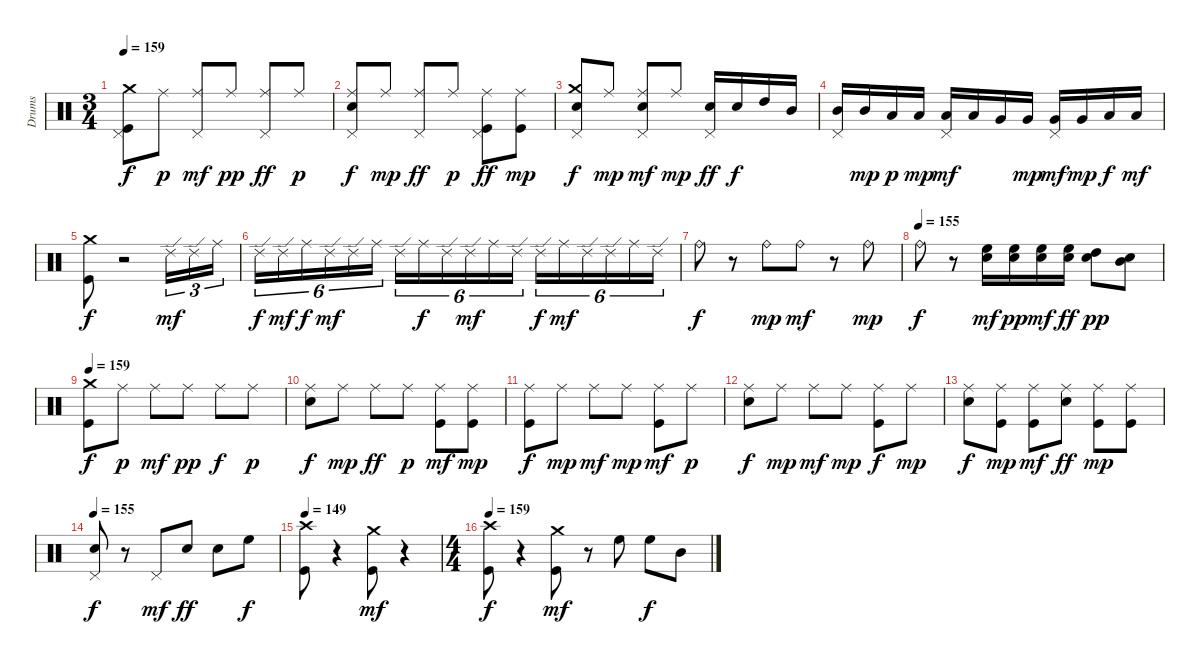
\track ("Drums" "Drums") {instrument percussion}
\staff {score}
\articulation defaults
\ts (3 4)
\tempo 159
\clef neutral
\ks c
("Kick (hit)" "Pedal Hi-Hat (hit)" "Crash medium (hit)").8{dy f} "Ride (middle)".8{dy p} ("Pedal Hi-Hat (hit)" "Ride (middle)").8{dy mf} "Ride (middle)".8{dy pp} ("Pedal Hi-Hat (hit)" "Ride (middle)").8{dy ff} "Ride (middle)".8{dy p} |
("Electric Snare (hit)" "Pedal Hi-Hat (hit)" "Ride (middle)").8{dy f} "Ride (middle)".8{dy mp} ("Pedal Hi-Hat (hit)" "Ride (middle)").8{dy ff} "Ride (middle)".8{dy p} ("Kick (hit)" "Pedal Hi-Hat (hit)" "Ride (middle)").8{dy ff} ("Kick (hit)" "Ride (middle)").8{dy mp} |
("Electric Snare (hit)" "Pedal Hi-Hat (hit)" "Crash medium (hit)").8{dy f} "Ride (middle)".8{dy mp} ("Electric Snare (hit)" "Pedal Hi-Hat (hit)" "Ride (middle)").8{dy mf} "Ride (middle)".8{dy mp} ("Electric Snare (hit)" "Pedal Hi-Hat (hit)").16{dy ff} "Electric Snare (hit)".16{dy f} "High Tom (hit)".16 "Mid Tom (hit)".16 |
("Mid Tom (hit)" "Pedal Hi-Hat (hit)").16 "Mid Tom (hit)".16{dy mp} "Low Tom (hit)".16{dy p} "Low Tom (hit)".16{dy mp} ("Low Tom (hit)" "Pedal Hi-Hat (hit)").16{dy mf} "Low Tom (hit)".16 "Very Low Tom (hit)".16 "Very Low Tom (hit)".16{dy mp} ("Very Low Tom (hit)" "Pedal Hi-Hat (hit)").16{dy mf} "Very Low Tom (hit)".16{dy mp} "Low Floor Tom (hit)".16{dy f} "Low Floor Tom (hit)".16{dy mf} |
("Kick (hit)" "Crash medium (hit)").8{dy f} r.2 "Ride (edge) 2".16{tu (3 2) dy mf} "Ride (edge) 2".16{tu (3 2)} "Ride (middle)".16{tu (3 2)} |
"Ride (edge) 2".16{tu (6 4) dy f} "Ride (edge) 2".16{tu (6 4) dy mf} "Ride (middle)".16{tu (6 4) dy f} "Ride (edge) 2".16{tu (6 4) dy mf} "Ride (edge) 2".16{tu (6 4)} "Ride (middle)".16{tu (6 4)} "Ride (edge) 2".16{tu (6 4)} "Ride (middle)".16{tu (6 4) dy f} "Ride (edge) 2".16{tu (6 4)} "Ride (edge) 2".16{tu (6 4) dy mf} "Ride (middle)".16{tu (6 4)} "Ride (edge) 2".16{tu (6 4)} "Ride (edge) 2".16{tu (6 4) dy f} "Ride (middle)".16{tu (6 4) dy mf} "Ride (edge) 2".16{tu (6 4)} "Ride (edge) 2".16{tu (6 4)} "Ride (middle)".16{tu (6 4)} "Ride (edge) 2".16{tu (6 4)} |
"Ride (bell)".8{dy f} r.8 "Ride (bell)".8{dy mp} "Ride (bell)".8{dy mf} r.8 "Ride (bell)".8{dy mp} |
\tempo (155)
"Ride (bell)".8{dy f} r.8 ("Snare (hit) 2" "High Floor Tom (hit)").16{dy mf} ("Snare (hit) 2" "High Floor Tom (hit)").16{dy pp} ("Snare (hit) 2" "High Floor Tom (hit)").16{dy mf} ("Snare (hit) 2" "High Floor Tom (hit)").16{dy ff} ("Snare (hit) 2" "High Tom (hit)").8{dy pp} ("Snare (hit) 2" "Mid Tom (hit)").8 |
\tempo 159
("Kick (hit)" "Crash medium (hit)").8{dy f} "Ride (middle)".8{dy p} "Ride (middle)".8{dy mf} "Ride (middle)".8{dy pp} "Ride (middle)".8{dy f} "Ride (middle)".8{dy p} |
("Electric Snare (hit)" "Ride (middle)").8{dy f} "Ride (middle)".8{dy mp} "Ride (middle)".8{dy ff} "Ride (middle)".8{dy p} ("Kick (hit)" "Ride (middle)").8{dy mf} ("Kick (hit)" "Ride (middle)").8{dy mp} |
("Kick (hit)" "Ride (middle)").8{dy f} "Ride (middle)".8{dy mp} "Ride (middle)".8{dy mf} "Ride (middle)".8{dy mp} ("Kick (hit)" "Ride (middle)").8{dy mf} "Ride (middle)".8{dy p} |
("Electric Snare (hit)" "Ride (middle)").8{dy f} "Ride (middle)".8{dy mp} "Ride (middle)".8{dy mf} "Ride (middle)".8{dy mp} ("Kick (hit)" "Ride (middle)").8{dy f} "Ride (middle)".8{dy mp} |
("Electric Snare (hit)" "Ride (middle)").8{dy f} ("Kick (hit)" "Ride (middle)").8{dy mp} ("Kick (hit)" "Ride (middle)").8{dy mf} ("Electric Snare (hit)" "Ride (middle)").8{dy ff} ("Kick (hit)" "Ride (middle)").8{dy mp} ("Kick (hit)" "Ride (middle)").8 |
\tempo 155
("Electric Snare (hit)" "Pedal Hi-Hat (hit)").8{dy f} r.8 "Pedal Hi-Hat (hit)".8{dy mf} "Electric Snare (hit)".8{dy ff} "Electric Snare (hit)".8 "High Floor Tom (hit)".8{dy f} |
\tempo 149
("Kick (hit)" "Crash high (hit)").8 r.4 ("Kick (hit)" "Crash medium (hit)").8{dy mf} r.4 |
\ts (4 4)
\tempo 159
("Kick (hit)" "Crash high (hit)").8{dy f} r.4 ("Kick (hit)" "Crash medium (hit)").8{dy mf} r.8 "High Floor Tom (hit)".8 "High Floor Tom (hit)".8{dy f} "Mid Tom (hit)".8
